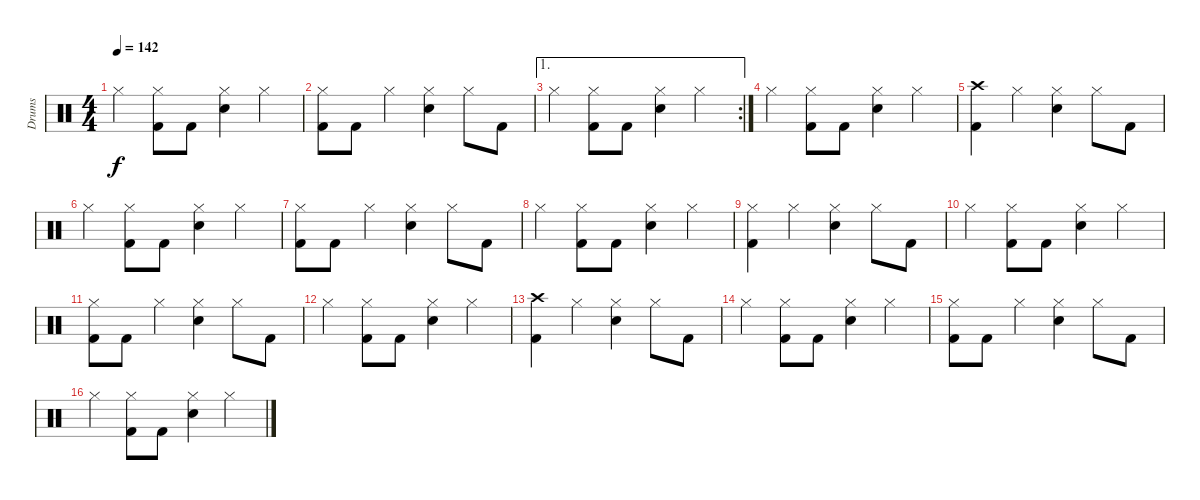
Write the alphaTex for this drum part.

\track ("Drums" "Drums") {instrument percussion}
\staff {score}
\articulation defaults
\ts (4 4)
\tempo 142
\clef neutral
\ks c "Hi-Hat (closed)".4{dy f}
("Hi-Hat (closed)" "Kick (hit) 2").8 "Kick (hit) 2".8 ("Hi-Hat (closed)" "Electric Snare (hit)").4 "Hi-Hat (closed)".4 |
("Hi-Hat (closed)" "Kick (hit) 2").8 "Kick (hit) 2".8 "Hi-Hat (closed)".4 ("Hi-Hat (closed)" "Electric Snare (hit)").4 "Hi-Hat (closed)".8 "Kick (hit) 2".8 |
\ae 1
\rc 2 "Hi-Hat (closed)".4
("Hi-Hat (closed)" "Kick (hit) 2").8 "Kick (hit) 2".8 ("Hi-Hat (closed)" "Electric Snare (hit)").4 "Hi-Hat (closed)".4 |
"Hi-Hat (closed)".4 ("Hi-Hat (closed)" "Kick (hit) 2").8 "Kick (hit) 2".8 ("Hi-Hat (closed)" "Electric Snare (hit)").4 "Hi-Hat (closed)".4 |
("Crash high (hit)" "Kick (hit) 2").4 "Hi-Hat (closed)".4 ("Hi-Hat (closed)" "Electric Snare (hit)").4 "Hi-Hat (closed)".8 "Kick (hit) 2".8 |
"Hi-Hat (closed)".4 ("Hi-Hat (closed)" "Kick (hit) 2").8 "Kick (hit) 2".8 ("Hi-Hat (closed)" "Electric Snare (hit)").4 "Hi-Hat (closed)".4 |
("Hi-Hat (closed)" "Kick (hit) 2").8 "Kick (hit) 2".8 "Hi-Hat (closed)".4 ("Hi-Hat (closed)" "Electric Snare (hit)").4 "Hi-Hat (closed)".8 "Kick (hit) 2".8 |
"Hi-Hat (closed)".4 ("Hi-Hat (closed)" "Kick (hit) 2").8 "Kick (hit) 2".8 ("Hi-Hat (closed)" "Electric Snare (hit)").4 "Hi-Hat (closed)".4 |
("Hi-Hat (closed)" "Kick (hit) 2").4 "Hi-Hat (closed)".4 ("Hi-Hat (closed)" "Electric Snare (hit)").4 "Hi-Hat (closed)".8 "Kick (hit) 2".8 |
"Hi-Hat (closed)".4 ("Hi-Hat (closed)" "Kick (hit) 2").8 "Kick (hit) 2".8 ("Hi-Hat (closed)" "Electric Snare (hit)").4 "Hi-Hat (closed)".4 |
("Hi-Hat (closed)" "Kick (hit) 2").8 "Kick (hit) 2".8 "Hi-Hat (closed)".4 ("Hi-Hat (closed)" "Electric Snare (hit)").4 "Hi-Hat (closed)".8 "Kick (hit) 2".8 |
"Hi-Hat (closed)".4 ("Hi-Hat (closed)" "Kick (hit) 2").8 "Kick (hit) 2".8 ("Hi-Hat (closed)" "Electric Snare (hit)").4 "Hi-Hat (closed)".4 |
("Crash high (hit)" "Kick (hit) 2").4 "Hi-Hat (closed)".4 ("Hi-Hat (closed)" "Electric Snare (hit)").4 "Hi-Hat (closed)".8 "Kick (hit) 2".8 |
"Hi-Hat (closed)".4 ("Hi-Hat (closed)" "Kick (hit) 2").8 "Kick (hit) 2".8 ("Hi-Hat (closed)" "Electric Snare (hit)").4 "Hi-Hat (closed)".4 |
("Hi-Hat (closed)" "Kick (hit) 2").8 "Kick (hit) 2".8 "Hi-Hat (closed)".4 ("Hi-Hat (closed)" "Electric Snare (hit)").4 "Hi-Hat (closed)".8 "Kick (hit) 2".8 |
"Hi-Hat (closed)".4 ("Hi-Hat (closed)" "Kick (hit) 2").8 "Kick (hit) 2".8 ("Hi-Hat (closed)" "Electric Snare (hit)").4 "Hi-Hat (closed)".4
